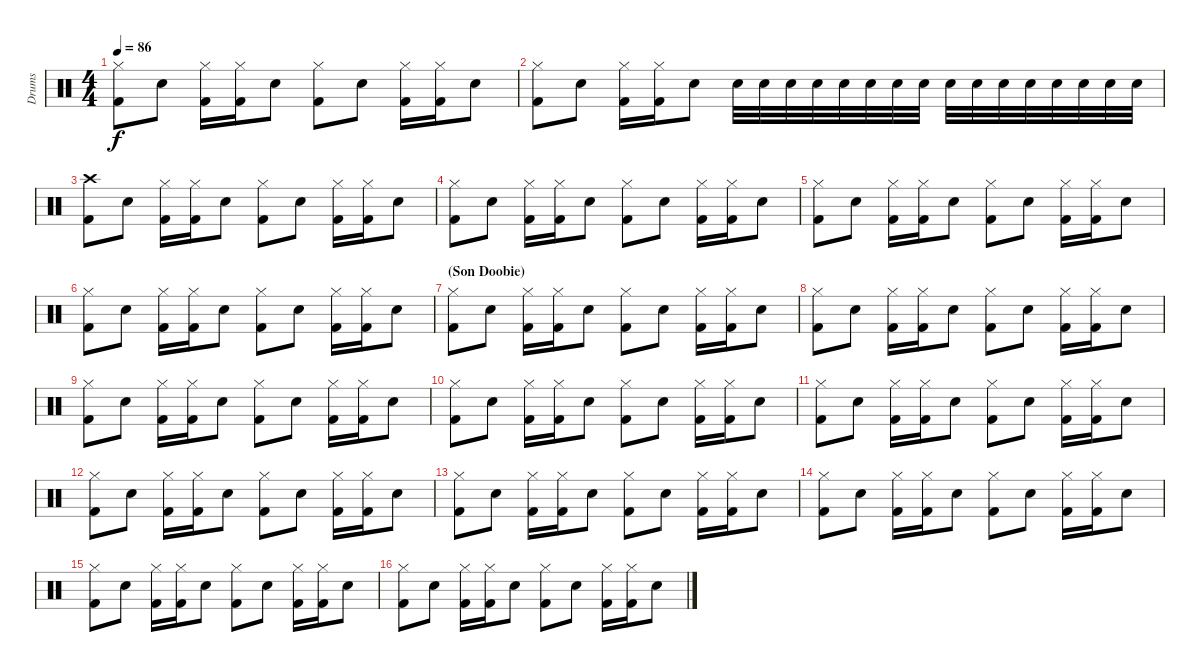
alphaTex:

\track ("Drums" "Drums") {instrument percussion}
\staff {score}
\articulation defaults
\ts (4 4)
\tempo 86
\clef neutral
\ks c
("Hi-Hat (closed)" "Kick (hit) 2").8{dy f} "Electric Snare (hit)".8 ("Hi-Hat (closed)" "Kick (hit) 2").16 ("Hi-Hat (closed)" "Kick (hit) 2").16 "Electric Snare (hit)".8 ("Hi-Hat (closed)" "Kick (hit) 2").8 "Electric Snare (hit)".8 ("Hi-Hat (closed)" "Kick (hit) 2").16 ("Hi-Hat (closed)" "Kick (hit) 2").16 "Electric Snare (hit)".8 |
("Hi-Hat (closed)" "Kick (hit) 2").8 "Electric Snare (hit)".8 ("Hi-Hat (closed)" "Kick (hit) 2").16 ("Hi-Hat (closed)" "Kick (hit) 2").16 "Electric Snare (hit)".8 "Electric Snare (hit)".32 "Electric Snare (hit)".32 "Electric Snare (hit)".32 "Electric Snare (hit)".32 "Electric Snare (hit)".32 "Electric Snare (hit)".32 "Electric Snare (hit)".32 "Electric Snare (hit)".32 "Electric Snare (hit)".32 "Electric Snare (hit)".32 "Electric Snare (hit)".32 "Electric Snare (hit)".32 "Electric Snare (hit)".32 "Electric Snare (hit)".32 "Electric Snare (hit)".32 "Electric Snare (hit)".32 |
("Crash high (hit)" "Kick (hit) 2").8 "Electric Snare (hit)".8 ("Hi-Hat (closed)" "Kick (hit) 2").16 ("Hi-Hat (closed)" "Kick (hit) 2").16 "Electric Snare (hit)".8 ("Hi-Hat (closed)" "Kick (hit) 2").8 "Electric Snare (hit)".8 ("Hi-Hat (closed)" "Kick (hit) 2").16 ("Hi-Hat (closed)" "Kick (hit) 2").16 "Electric Snare (hit)".8 |
("Hi-Hat (closed)" "Kick (hit) 2").8 "Electric Snare (hit)".8 ("Hi-Hat (closed)" "Kick (hit) 2").16 ("Hi-Hat (closed)" "Kick (hit) 2").16 "Electric Snare (hit)".8 ("Hi-Hat (closed)" "Kick (hit) 2").8 "Electric Snare (hit)".8 ("Hi-Hat (closed)" "Kick (hit) 2").16 ("Hi-Hat (closed)" "Kick (hit) 2").16 "Electric Snare (hit)".8 |
("Hi-Hat (closed)" "Kick (hit) 2").8 "Electric Snare (hit)".8 ("Hi-Hat (closed)" "Kick (hit) 2").16 ("Hi-Hat (closed)" "Kick (hit) 2").16 "Electric Snare (hit)".8 ("Hi-Hat (closed)" "Kick (hit) 2").8 "Electric Snare (hit)".8 ("Hi-Hat (closed)" "Kick (hit) 2").16 ("Hi-Hat (closed)" "Kick (hit) 2").16 "Electric Snare (hit)".8 |
("Hi-Hat (closed)" "Kick (hit) 2").8 "Electric Snare (hit)".8 ("Hi-Hat (closed)" "Kick (hit) 2").16 ("Hi-Hat (closed)" "Kick (hit) 2").16 "Electric Snare (hit)".8 ("Hi-Hat (closed)" "Kick (hit) 2").8 "Electric Snare (hit)".8 ("Hi-Hat (closed)" "Kick (hit) 2").16 ("Hi-Hat (closed)" "Kick (hit) 2").16 "Electric Snare (hit)".8 |
\section ("" "(Son Doobie)")
("Hi-Hat (closed)" "Kick (hit) 2").8 "Electric Snare (hit)".8 ("Hi-Hat (closed)" "Kick (hit) 2").16 ("Hi-Hat (closed)" "Kick (hit) 2").16 "Electric Snare (hit)".8 ("Hi-Hat (closed)" "Kick (hit) 2").8 "Electric Snare (hit)".8 ("Hi-Hat (closed)" "Kick (hit) 2").16 ("Hi-Hat (closed)" "Kick (hit) 2").16 "Electric Snare (hit)".8 |
("Hi-Hat (closed)" "Kick (hit) 2").8 "Electric Snare (hit)".8 ("Hi-Hat (closed)" "Kick (hit) 2").16 ("Hi-Hat (closed)" "Kick (hit) 2").16 "Electric Snare (hit)".8 ("Hi-Hat (closed)" "Kick (hit) 2").8 "Electric Snare (hit)".8 ("Hi-Hat (closed)" "Kick (hit) 2").16 ("Hi-Hat (closed)" "Kick (hit) 2").16 "Electric Snare (hit)".8 |
("Hi-Hat (closed)" "Kick (hit) 2").8 "Electric Snare (hit)".8 ("Hi-Hat (closed)" "Kick (hit) 2").16 ("Hi-Hat (closed)" "Kick (hit) 2").16 "Electric Snare (hit)".8 ("Hi-Hat (closed)" "Kick (hit) 2").8 "Electric Snare (hit)".8 ("Hi-Hat (closed)" "Kick (hit) 2").16 ("Hi-Hat (closed)" "Kick (hit) 2").16 "Electric Snare (hit)".8 |
("Hi-Hat (closed)" "Kick (hit) 2").8 "Electric Snare (hit)".8 ("Hi-Hat (closed)" "Kick (hit) 2").16 ("Hi-Hat (closed)" "Kick (hit) 2").16 "Electric Snare (hit)".8 ("Hi-Hat (closed)" "Kick (hit) 2").8 "Electric Snare (hit)".8 ("Hi-Hat (closed)" "Kick (hit) 2").16 ("Hi-Hat (closed)" "Kick (hit) 2").16 "Electric Snare (hit)".8 |
("Hi-Hat (closed)" "Kick (hit) 2").8 "Electric Snare (hit)".8 ("Hi-Hat (closed)" "Kick (hit) 2").16 ("Hi-Hat (closed)" "Kick (hit) 2").16 "Electric Snare (hit)".8 ("Hi-Hat (closed)" "Kick (hit) 2").8 "Electric Snare (hit)".8 ("Hi-Hat (closed)" "Kick (hit) 2").16 ("Hi-Hat (closed)" "Kick (hit) 2").16 "Electric Snare (hit)".8 |
("Hi-Hat (closed)" "Kick (hit) 2").8 "Electric Snare (hit)".8 ("Hi-Hat (closed)" "Kick (hit) 2").16 ("Hi-Hat (closed)" "Kick (hit) 2").16 "Electric Snare (hit)".8 ("Hi-Hat (closed)" "Kick (hit) 2").8 "Electric Snare (hit)".8 ("Hi-Hat (closed)" "Kick (hit) 2").16 ("Hi-Hat (closed)" "Kick (hit) 2").16 "Electric Snare (hit)".8 |
("Hi-Hat (closed)" "Kick (hit) 2").8 "Electric Snare (hit)".8 ("Hi-Hat (closed)" "Kick (hit) 2").16 ("Hi-Hat (closed)" "Kick (hit) 2").16 "Electric Snare (hit)".8 ("Hi-Hat (closed)" "Kick (hit) 2").8 "Electric Snare (hit)".8 ("Hi-Hat (closed)" "Kick (hit) 2").16 ("Hi-Hat (closed)" "Kick (hit) 2").16 "Electric Snare (hit)".8 |
("Hi-Hat (closed)" "Kick (hit) 2").8 "Electric Snare (hit)".8 ("Hi-Hat (closed)" "Kick (hit) 2").16 ("Hi-Hat (closed)" "Kick (hit) 2").16 "Electric Snare (hit)".8 ("Hi-Hat (closed)" "Kick (hit) 2").8 "Electric Snare (hit)".8 ("Hi-Hat (closed)" "Kick (hit) 2").16 ("Hi-Hat (closed)" "Kick (hit) 2").16 "Electric Snare (hit)".8 |
("Hi-Hat (closed)" "Kick (hit) 2").8 "Electric Snare (hit)".8 ("Hi-Hat (closed)" "Kick (hit) 2").16 ("Hi-Hat (closed)" "Kick (hit) 2").16 "Electric Snare (hit)".8 ("Hi-Hat (closed)" "Kick (hit) 2").8 "Electric Snare (hit)".8 ("Hi-Hat (closed)" "Kick (hit) 2").16 ("Hi-Hat (closed)" "Kick (hit) 2").16 "Electric Snare (hit)".8 |
("Hi-Hat (closed)" "Kick (hit) 2").8 "Electric Snare (hit)".8 ("Hi-Hat (closed)" "Kick (hit) 2").16 ("Hi-Hat (closed)" "Kick (hit) 2").16 "Electric Snare (hit)".8 ("Hi-Hat (closed)" "Kick (hit) 2").8 "Electric Snare (hit)".8 ("Hi-Hat (closed)" "Kick (hit) 2").16 ("Hi-Hat (closed)" "Kick (hit) 2").16 "Electric Snare (hit)".8
